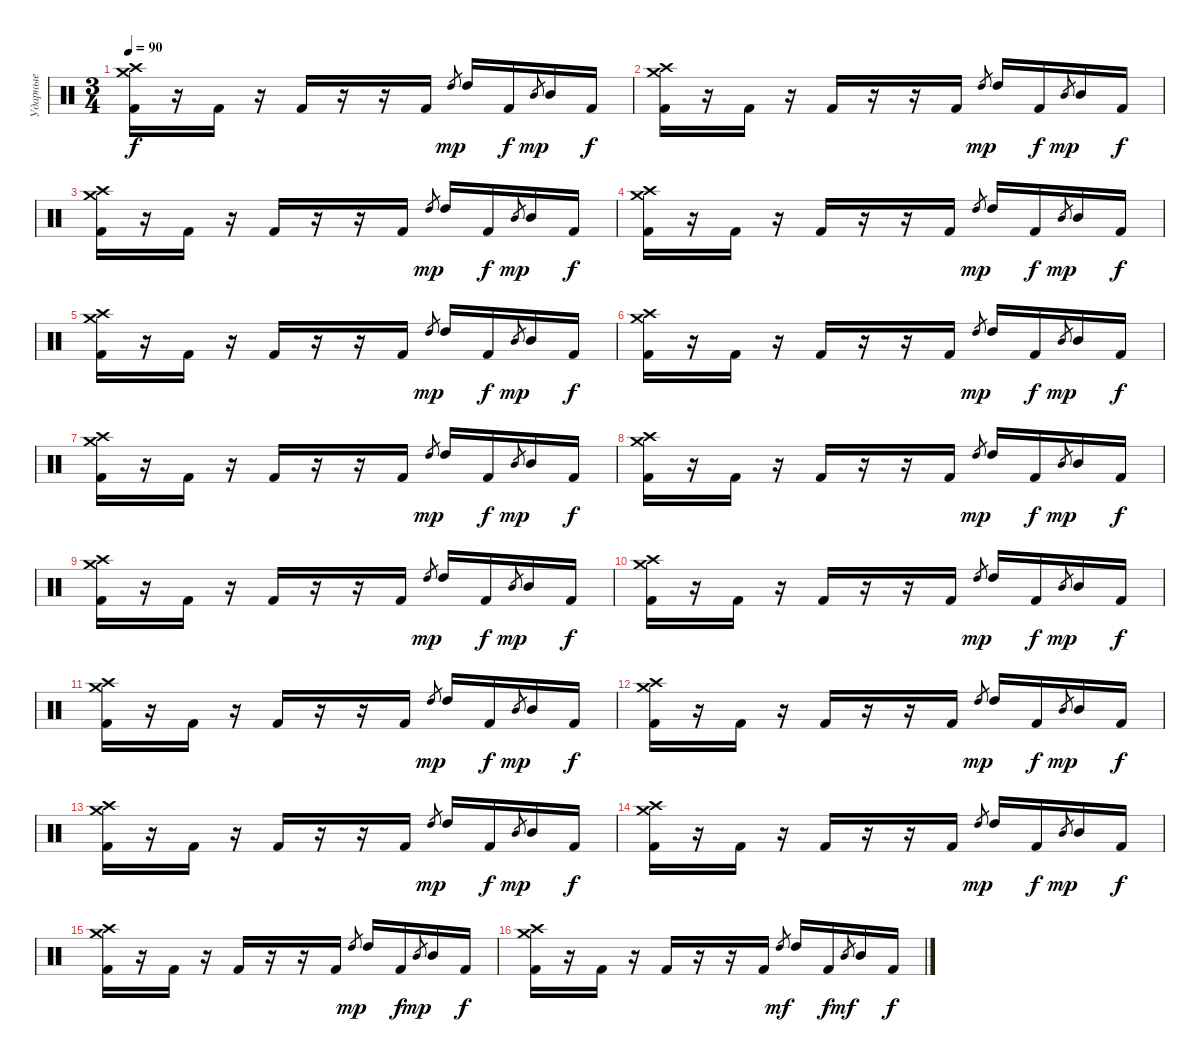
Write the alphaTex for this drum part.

\track ("Ударные" "Ударные") {instrument percussion}
\staff {score}
\articulation defaults
\ts (3 4)
\tempo 90
\clef neutral
\ks c
("Crash medium (hit)" "Crash high (hit)" "Kick (hit) 2").16{dy f} r.16 "Kick (hit) 2".16 r.16 "Kick (hit) 2".16 r.16 r.16 "Kick (hit) 2".16 "High Tom (hit)".8{gr dy mp} "High Tom (hit)".16 "Kick (hit) 2".16{dy f} "Mid Tom (hit)".8{gr dy mp} "Mid Tom (hit)".16 "Kick (hit) 2".16{dy f} |
("Crash medium (hit)" "Crash high (hit)" "Kick (hit) 2").16 r.16 "Kick (hit) 2".16 r.16 "Kick (hit) 2".16 r.16 r.16 "Kick (hit) 2".16 "High Tom (hit)".8{gr dy mp} "High Tom (hit)".16 "Kick (hit) 2".16{dy f} "Mid Tom (hit)".8{gr dy mp} "Mid Tom (hit)".16 "Kick (hit) 2".16{dy f} |
("Crash medium (hit)" "Crash high (hit)" "Kick (hit) 2").16 r.16 "Kick (hit) 2".16 r.16 "Kick (hit) 2".16 r.16 r.16 "Kick (hit) 2".16 "High Tom (hit)".8{gr dy mp} "High Tom (hit)".16 "Kick (hit) 2".16{dy f} "Mid Tom (hit)".8{gr dy mp} "Mid Tom (hit)".16 "Kick (hit) 2".16{dy f} |
("Crash medium (hit)" "Crash high (hit)" "Kick (hit) 2").16 r.16 "Kick (hit) 2".16 r.16 "Kick (hit) 2".16 r.16 r.16 "Kick (hit) 2".16 "High Tom (hit)".8{gr dy mp} "High Tom (hit)".16 "Kick (hit) 2".16{dy f} "Mid Tom (hit)".8{gr dy mp} "Mid Tom (hit)".16 "Kick (hit) 2".16{dy f} |
("Crash medium (hit)" "Crash high (hit)" "Kick (hit) 2").16 r.16 "Kick (hit) 2".16 r.16 "Kick (hit) 2".16 r.16 r.16 "Kick (hit) 2".16 "High Tom (hit)".8{gr dy mp} "High Tom (hit)".16 "Kick (hit) 2".16{dy f} "Mid Tom (hit)".8{gr dy mp} "Mid Tom (hit)".16 "Kick (hit) 2".16{dy f} |
("Crash medium (hit)" "Crash high (hit)" "Kick (hit) 2").16 r.16 "Kick (hit) 2".16 r.16 "Kick (hit) 2".16 r.16 r.16 "Kick (hit) 2".16 "High Tom (hit)".8{gr dy mp} "High Tom (hit)".16 "Kick (hit) 2".16{dy f} "Mid Tom (hit)".8{gr dy mp} "Mid Tom (hit)".16 "Kick (hit) 2".16{dy f} |
("Crash medium (hit)" "Crash high (hit)" "Kick (hit) 2").16 r.16 "Kick (hit) 2".16 r.16 "Kick (hit) 2".16 r.16 r.16 "Kick (hit) 2".16 "High Tom (hit)".8{gr dy mp} "High Tom (hit)".16 "Kick (hit) 2".16{dy f} "Mid Tom (hit)".8{gr dy mp} "Mid Tom (hit)".16 "Kick (hit) 2".16{dy f} |
("Crash medium (hit)" "Crash high (hit)" "Kick (hit) 2").16 r.16 "Kick (hit) 2".16 r.16 "Kick (hit) 2".16 r.16 r.16 "Kick (hit) 2".16 "High Tom (hit)".8{gr dy mp} "High Tom (hit)".16 "Kick (hit) 2".16{dy f} "Mid Tom (hit)".8{gr dy mp} "Mid Tom (hit)".16 "Kick (hit) 2".16{dy f} |
("Crash medium (hit)" "Crash high (hit)" "Kick (hit) 2").16 r.16 "Kick (hit) 2".16 r.16 "Kick (hit) 2".16 r.16 r.16 "Kick (hit) 2".16 "High Tom (hit)".8{gr dy mp} "High Tom (hit)".16 "Kick (hit) 2".16{dy f} "Mid Tom (hit)".8{gr dy mp} "Mid Tom (hit)".16 "Kick (hit) 2".16{dy f} |
("Crash medium (hit)" "Crash high (hit)" "Kick (hit) 2").16 r.16 "Kick (hit) 2".16 r.16 "Kick (hit) 2".16 r.16 r.16 "Kick (hit) 2".16 "High Tom (hit)".8{gr dy mp} "High Tom (hit)".16 "Kick (hit) 2".16{dy f} "Mid Tom (hit)".8{gr dy mp} "Mid Tom (hit)".16 "Kick (hit) 2".16{dy f} |
("Crash medium (hit)" "Crash high (hit)" "Kick (hit) 2").16 r.16 "Kick (hit) 2".16 r.16 "Kick (hit) 2".16 r.16 r.16 "Kick (hit) 2".16 "High Tom (hit)".8{gr dy mp} "High Tom (hit)".16 "Kick (hit) 2".16{dy f} "Mid Tom (hit)".8{gr dy mp} "Mid Tom (hit)".16 "Kick (hit) 2".16{dy f} |
("Crash medium (hit)" "Crash high (hit)" "Kick (hit) 2").16 r.16 "Kick (hit) 2".16 r.16 "Kick (hit) 2".16 r.16 r.16 "Kick (hit) 2".16 "High Tom (hit)".8{gr dy mp} "High Tom (hit)".16 "Kick (hit) 2".16{dy f} "Mid Tom (hit)".8{gr dy mp} "Mid Tom (hit)".16 "Kick (hit) 2".16{dy f} |
("Crash medium (hit)" "Crash high (hit)" "Kick (hit) 2").16 r.16 "Kick (hit) 2".16 r.16 "Kick (hit) 2".16 r.16 r.16 "Kick (hit) 2".16 "High Tom (hit)".8{gr dy mp} "High Tom (hit)".16 "Kick (hit) 2".16{dy f} "Mid Tom (hit)".8{gr dy mp} "Mid Tom (hit)".16 "Kick (hit) 2".16{dy f} |
("Crash medium (hit)" "Crash high (hit)" "Kick (hit) 2").16 r.16 "Kick (hit) 2".16 r.16 "Kick (hit) 2".16 r.16 r.16 "Kick (hit) 2".16 "High Tom (hit)".8{gr dy mp} "High Tom (hit)".16 "Kick (hit) 2".16{dy f} "Mid Tom (hit)".8{gr dy mp} "Mid Tom (hit)".16 "Kick (hit) 2".16{dy f} |
("Crash medium (hit)" "Crash high (hit)" "Kick (hit) 2").16 r.16 "Kick (hit) 2".16 r.16 "Kick (hit) 2".16 r.16 r.16 "Kick (hit) 2".16 "High Tom (hit)".8{gr dy mp} "High Tom (hit)".16 "Kick (hit) 2".16{dy f} "Mid Tom (hit)".8{gr dy mp} "Mid Tom (hit)".16 "Kick (hit) 2".16{dy f} |
("Crash medium (hit)" "Crash high (hit)" "Kick (hit) 2").16 r.16 "Kick (hit) 2".16 r.16 "Kick (hit) 2".16 r.16 r.16 "Kick (hit) 2".16 "High Tom (hit)".8{gr dy mf} "High Tom (hit)".16 "Kick (hit) 2".16{dy f} "Mid Tom (hit)".8{gr dy mf} "Mid Tom (hit)".16 "Kick (hit) 2".16{dy f}
